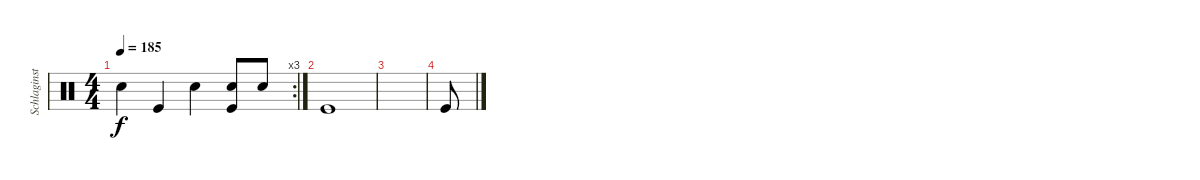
\track ("Schlaginstrumente - Auswahl" "Schlaginst") {instrument percussion}
\staff {score}
\articulation defaults
\rc 3
\ts (4 4)
\tempo 185
\clef neutral
\ks c "Snare (hit) 2".4{dy f} "Kick (hit)".4 "Snare (hit) 2".4
("Kick (hit)" "Snare (hit) 2").8 "Snare (hit) 2".8 |
"Kick (hit)".1 |
|
"Kick (hit)".8
